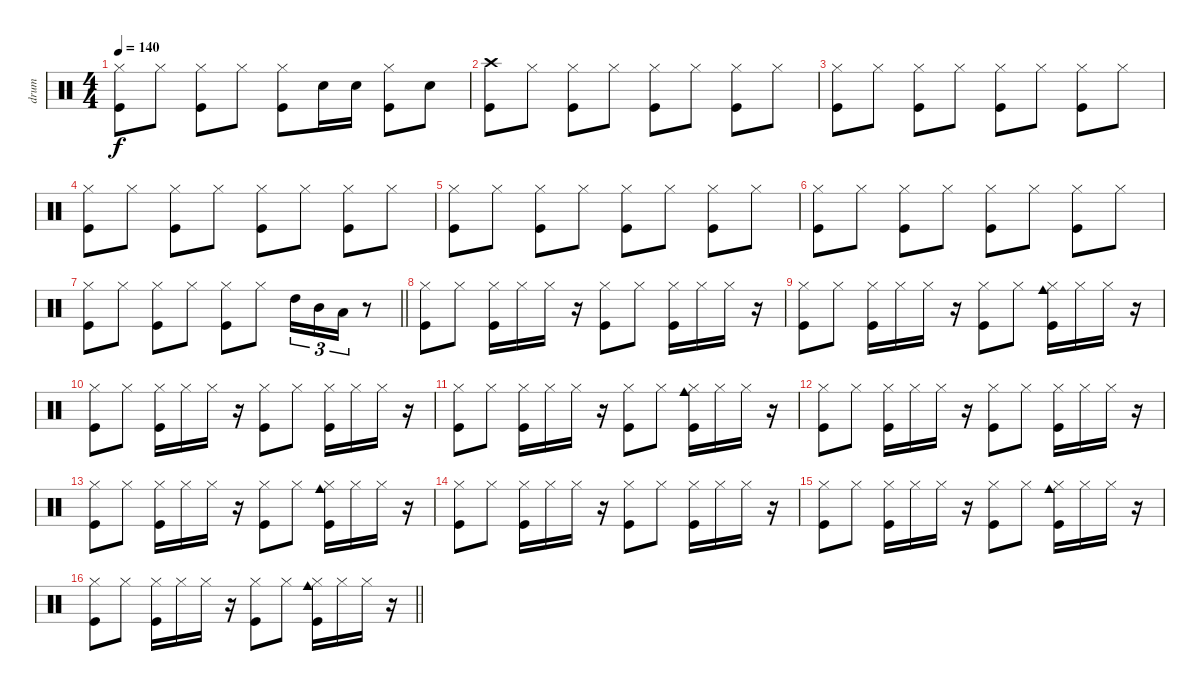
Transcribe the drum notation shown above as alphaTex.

\track ("drum" "drum") {instrument percussion}
\staff {score}
\articulation defaults
\ts (4 4)
\tempo 140
\clef neutral
\ks c
("Hi-Hat (closed)" "Kick (hit)").8{dy f} "Hi-Hat (closed)".8 ("Hi-Hat (closed)" "Kick (hit)").8 "Hi-Hat (closed)".8 ("Hi-Hat (closed)" "Kick (hit)").8 "Snare (hit) 2".16 "Snare (hit) 2".16 ("Hi-Hat (closed)" "Kick (hit)").8 "Snare (hit) 2".8 |
("Crash high (hit)" "Kick (hit)").8 "Hi-Hat (closed)".8 ("Hi-Hat (closed)" "Kick (hit)").8 "Hi-Hat (closed)".8 ("Hi-Hat (closed)" "Kick (hit)").8 "Hi-Hat (closed)".8 ("Hi-Hat (closed)" "Kick (hit)").8 "Hi-Hat (closed)".8 |
("Hi-Hat (closed)" "Kick (hit)").8 "Hi-Hat (closed)".8 ("Hi-Hat (closed)" "Kick (hit)").8 "Hi-Hat (closed)".8 ("Hi-Hat (closed)" "Kick (hit)").8 "Hi-Hat (closed)".8 ("Hi-Hat (closed)" "Kick (hit)").8 "Hi-Hat (closed)".8 |
("Hi-Hat (closed)" "Kick (hit)").8 "Hi-Hat (closed)".8 ("Hi-Hat (closed)" "Kick (hit)").8 "Hi-Hat (closed)".8 ("Hi-Hat (closed)" "Kick (hit)").8 "Hi-Hat (closed)".8 ("Hi-Hat (closed)" "Kick (hit)").8 "Hi-Hat (closed)".8 |
("Hi-Hat (closed)" "Kick (hit)").8 "Hi-Hat (closed)".8 ("Hi-Hat (closed)" "Kick (hit)").8 "Hi-Hat (closed)".8 ("Hi-Hat (closed)" "Kick (hit)").8 "Hi-Hat (closed)".8 ("Hi-Hat (closed)" "Kick (hit)").8 "Hi-Hat (closed)".8 |
("Hi-Hat (closed)" "Kick (hit)").8 "Hi-Hat (closed)".8 ("Hi-Hat (closed)" "Kick (hit)").8 "Hi-Hat (closed)".8 ("Hi-Hat (closed)" "Kick (hit)").8 "Hi-Hat (closed)".8 ("Hi-Hat (closed)" "Kick (hit)").8 "Hi-Hat (closed)".8 |
\barLineRight lightlight
("Hi-Hat (closed)" "Kick (hit)").8 "Hi-Hat (closed)".8 ("Hi-Hat (closed)" "Kick (hit)").8 "Hi-Hat (closed)".8 ("Hi-Hat (closed)" "Kick (hit)").8 "Hi-Hat (closed)".8 "High Tom (hit)".16{tu (3 2)} "Mid Tom (hit)".16{tu (3 2)} "Low Tom (hit)".16{tu (3 2)} r.8 |
("Hi-Hat (closed)" "Kick (hit)").8 "Hi-Hat (closed)".8 ("Hi-Hat (closed)" "Kick (hit)").16 "Hi-Hat (closed)".16 "Hi-Hat (closed)".16 r.16 ("Hi-Hat (closed)" "Kick (hit)").8 "Hi-Hat (closed)".8 ("Hi-Hat (closed)" "Kick (hit)").16 "Hi-Hat (closed)".16 "Hi-Hat (closed)".16 r.16 |
("Hi-Hat (closed)" "Kick (hit)").8 "Hi-Hat (closed)".8 ("Hi-Hat (closed)" "Kick (hit)").16 "Hi-Hat (closed)".16 "Hi-Hat (closed)".16 r.16 ("Hi-Hat (closed)" "Kick (hit)").8 "Hi-Hat (closed)".8 ("Hi-Hat (closed)" "Cowbell medium (hit)" "Kick (hit)").16 "Hi-Hat (closed)".16 "Hi-Hat (closed)".16 r.16 |
("Hi-Hat (closed)" "Kick (hit)").8 "Hi-Hat (closed)".8 ("Hi-Hat (closed)" "Kick (hit)").16 "Hi-Hat (closed)".16 "Hi-Hat (closed)".16 r.16 ("Hi-Hat (closed)" "Kick (hit)").8 "Hi-Hat (closed)".8 ("Hi-Hat (closed)" "Kick (hit)").16 "Hi-Hat (closed)".16 "Hi-Hat (closed)".16 r.16 |
("Hi-Hat (closed)" "Kick (hit)").8 "Hi-Hat (closed)".8 ("Hi-Hat (closed)" "Kick (hit)").16 "Hi-Hat (closed)".16 "Hi-Hat (closed)".16 r.16 ("Hi-Hat (closed)" "Kick (hit)").8 "Hi-Hat (closed)".8 ("Hi-Hat (closed)" "Cowbell medium (hit)" "Kick (hit)").16 "Hi-Hat (closed)".16 "Hi-Hat (closed)".16 r.16 |
("Hi-Hat (closed)" "Kick (hit)").8 "Hi-Hat (closed)".8 ("Hi-Hat (closed)" "Kick (hit)").16 "Hi-Hat (closed)".16 "Hi-Hat (closed)".16 r.16 ("Hi-Hat (closed)" "Kick (hit)").8 "Hi-Hat (closed)".8 ("Hi-Hat (closed)" "Kick (hit)").16 "Hi-Hat (closed)".16 "Hi-Hat (closed)".16 r.16 |
("Hi-Hat (closed)" "Kick (hit)").8 "Hi-Hat (closed)".8 ("Hi-Hat (closed)" "Kick (hit)").16 "Hi-Hat (closed)".16 "Hi-Hat (closed)".16 r.16 ("Hi-Hat (closed)" "Kick (hit)").8 "Hi-Hat (closed)".8 ("Hi-Hat (closed)" "Cowbell medium (hit)" "Kick (hit)").16 "Hi-Hat (closed)".16 "Hi-Hat (closed)".16 r.16 |
("Hi-Hat (closed)" "Kick (hit)").8 "Hi-Hat (closed)".8 ("Hi-Hat (closed)" "Kick (hit)").16 "Hi-Hat (closed)".16 "Hi-Hat (closed)".16 r.16 ("Hi-Hat (closed)" "Kick (hit)").8 "Hi-Hat (closed)".8 ("Hi-Hat (closed)" "Kick (hit)").16 "Hi-Hat (closed)".16 "Hi-Hat (closed)".16 r.16 |
("Hi-Hat (closed)" "Kick (hit)").8 "Hi-Hat (closed)".8 ("Hi-Hat (closed)" "Kick (hit)").16 "Hi-Hat (closed)".16 "Hi-Hat (closed)".16 r.16 ("Hi-Hat (closed)" "Kick (hit)").8 "Hi-Hat (closed)".8 ("Hi-Hat (closed)" "Cowbell medium (hit)" "Kick (hit)").16 "Hi-Hat (closed)".16 "Hi-Hat (closed)".16 r.16 |
\barLineRight lightlight
("Hi-Hat (closed)" "Kick (hit)").8 "Hi-Hat (closed)".8 ("Hi-Hat (closed)" "Kick (hit)").16 "Hi-Hat (closed)".16 "Hi-Hat (closed)".16 r.16 ("Hi-Hat (closed)" "Kick (hit)").8 "Hi-Hat (closed)".8 ("Hi-Hat (closed)" "Cowbell medium (hit)" "Kick (hit)").16 "Hi-Hat (closed)".16 "Hi-Hat (closed)".16 r.16
